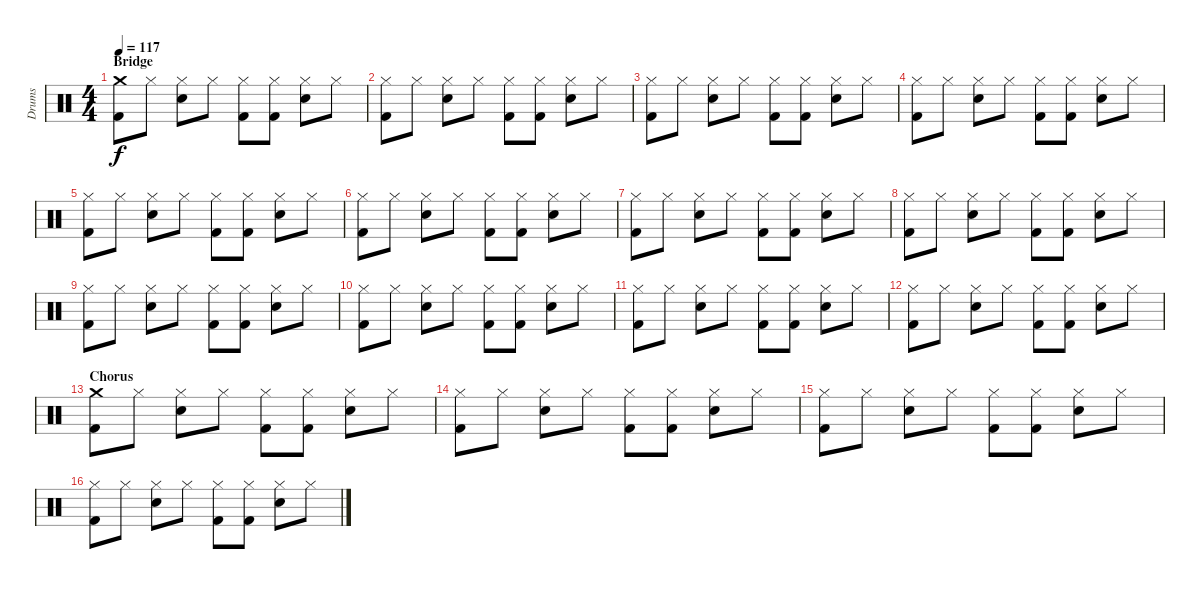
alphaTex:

\track ("Drums" "Drums") {instrument percussion}
\staff {score}
\articulation defaults
\ts (4 4)
\section ("" "Bridge")
\tempo 117
\clef neutral
\ks c
("Crash medium (hit)" "Kick (hit) 2").8{dy f} "Hi-Hat (closed)".8 ("Hi-Hat (closed)" "Snare (hit) 2").8 "Hi-Hat (closed)".8 ("Hi-Hat (closed)" "Kick (hit) 2").8 ("Hi-Hat (closed)" "Kick (hit) 2").8 ("Hi-Hat (closed)" "Snare (hit) 2").8 "Hi-Hat (closed)".8 |
("Hi-Hat (closed)" "Kick (hit) 2").8 "Hi-Hat (closed)".8 ("Hi-Hat (closed)" "Snare (hit) 2").8 "Hi-Hat (closed)".8 ("Hi-Hat (closed)" "Kick (hit) 2").8 ("Hi-Hat (closed)" "Kick (hit) 2").8 ("Hi-Hat (closed)" "Snare (hit) 2").8 "Hi-Hat (closed)".8 |
("Hi-Hat (closed)" "Kick (hit) 2").8 "Hi-Hat (closed)".8 ("Hi-Hat (closed)" "Snare (hit) 2").8 "Hi-Hat (closed)".8 ("Hi-Hat (closed)" "Kick (hit) 2").8 ("Hi-Hat (closed)" "Kick (hit) 2").8 ("Hi-Hat (closed)" "Snare (hit) 2").8 "Hi-Hat (closed)".8 |
("Hi-Hat (closed)" "Kick (hit) 2").8 "Hi-Hat (closed)".8 ("Hi-Hat (closed)" "Snare (hit) 2").8 "Hi-Hat (closed)".8 ("Hi-Hat (closed)" "Kick (hit) 2").8 ("Hi-Hat (closed)" "Kick (hit) 2").8 ("Hi-Hat (closed)" "Snare (hit) 2").8 "Hi-Hat (closed)".8 |
("Hi-Hat (closed)" "Kick (hit) 2").8 "Hi-Hat (closed)".8 ("Hi-Hat (closed)" "Snare (hit) 2").8 "Hi-Hat (closed)".8 ("Hi-Hat (closed)" "Kick (hit) 2").8 ("Hi-Hat (closed)" "Kick (hit) 2").8 ("Hi-Hat (closed)" "Snare (hit) 2").8 "Hi-Hat (closed)".8 |
("Hi-Hat (closed)" "Kick (hit) 2").8 "Hi-Hat (closed)".8 ("Hi-Hat (closed)" "Snare (hit) 2").8 "Hi-Hat (closed)".8 ("Hi-Hat (closed)" "Kick (hit) 2").8 ("Hi-Hat (closed)" "Kick (hit) 2").8 ("Hi-Hat (closed)" "Snare (hit) 2").8 "Hi-Hat (closed)".8 |
("Hi-Hat (closed)" "Kick (hit) 2").8 "Hi-Hat (closed)".8 ("Hi-Hat (closed)" "Snare (hit) 2").8 "Hi-Hat (closed)".8 ("Hi-Hat (closed)" "Kick (hit) 2").8 ("Hi-Hat (closed)" "Kick (hit) 2").8 ("Hi-Hat (closed)" "Snare (hit) 2").8 "Hi-Hat (closed)".8 |
("Hi-Hat (closed)" "Kick (hit) 2").8 "Hi-Hat (closed)".8 ("Hi-Hat (closed)" "Snare (hit) 2").8 "Hi-Hat (closed)".8 ("Hi-Hat (closed)" "Kick (hit) 2").8 ("Hi-Hat (closed)" "Kick (hit) 2").8 ("Hi-Hat (closed)" "Snare (hit) 2").8 "Hi-Hat (closed)".8 |
("Hi-Hat (closed)" "Kick (hit) 2").8 "Hi-Hat (closed)".8 ("Hi-Hat (closed)" "Snare (hit) 2").8 "Hi-Hat (closed)".8 ("Hi-Hat (closed)" "Kick (hit) 2").8 ("Hi-Hat (closed)" "Kick (hit) 2").8 ("Hi-Hat (closed)" "Snare (hit) 2").8 "Hi-Hat (closed)".8 |
("Hi-Hat (closed)" "Kick (hit) 2").8 "Hi-Hat (closed)".8 ("Hi-Hat (closed)" "Snare (hit) 2").8 "Hi-Hat (closed)".8 ("Hi-Hat (closed)" "Kick (hit) 2").8 ("Hi-Hat (closed)" "Kick (hit) 2").8 ("Hi-Hat (closed)" "Snare (hit) 2").8 "Hi-Hat (closed)".8 |
("Hi-Hat (closed)" "Kick (hit) 2").8 "Hi-Hat (closed)".8 ("Hi-Hat (closed)" "Snare (hit) 2").8 "Hi-Hat (closed)".8 ("Hi-Hat (closed)" "Kick (hit) 2").8 ("Hi-Hat (closed)" "Kick (hit) 2").8 ("Hi-Hat (closed)" "Snare (hit) 2").8 "Hi-Hat (closed)".8 |
("Hi-Hat (closed)" "Kick (hit) 2").8 "Hi-Hat (closed)".8 ("Hi-Hat (closed)" "Snare (hit) 2").8 "Hi-Hat (closed)".8 ("Hi-Hat (closed)" "Kick (hit) 2").8 ("Hi-Hat (closed)" "Kick (hit) 2").8 ("Hi-Hat (closed)" "Snare (hit) 2").8 "Hi-Hat (closed)".8 |
\section ("" "Chorus")
("Crash medium (hit)" "Kick (hit) 2").8 "Hi-Hat (closed)".8 ("Hi-Hat (closed)" "Snare (hit) 2").8 "Hi-Hat (closed)".8 ("Hi-Hat (closed)" "Kick (hit) 2").8 ("Hi-Hat (closed)" "Kick (hit) 2").8 ("Hi-Hat (closed)" "Snare (hit) 2").8 "Hi-Hat (closed)".8 |
("Hi-Hat (closed)" "Kick (hit) 2").8 "Hi-Hat (closed)".8 ("Hi-Hat (closed)" "Snare (hit) 2").8 "Hi-Hat (closed)".8 ("Hi-Hat (closed)" "Kick (hit) 2").8 ("Hi-Hat (closed)" "Kick (hit) 2").8 ("Hi-Hat (closed)" "Snare (hit) 2").8 "Hi-Hat (closed)".8 |
("Hi-Hat (closed)" "Kick (hit) 2").8 "Hi-Hat (closed)".8 ("Hi-Hat (closed)" "Snare (hit) 2").8 "Hi-Hat (closed)".8 ("Hi-Hat (closed)" "Kick (hit) 2").8 ("Hi-Hat (closed)" "Kick (hit) 2").8 ("Hi-Hat (closed)" "Snare (hit) 2").8 "Hi-Hat (closed)".8 |
("Hi-Hat (closed)" "Kick (hit) 2").8 "Hi-Hat (closed)".8 ("Hi-Hat (closed)" "Snare (hit) 2").8 "Hi-Hat (closed)".8 ("Hi-Hat (closed)" "Kick (hit) 2").8 ("Hi-Hat (closed)" "Kick (hit) 2").8 ("Hi-Hat (closed)" "Snare (hit) 2").8 "Hi-Hat (closed)".8
